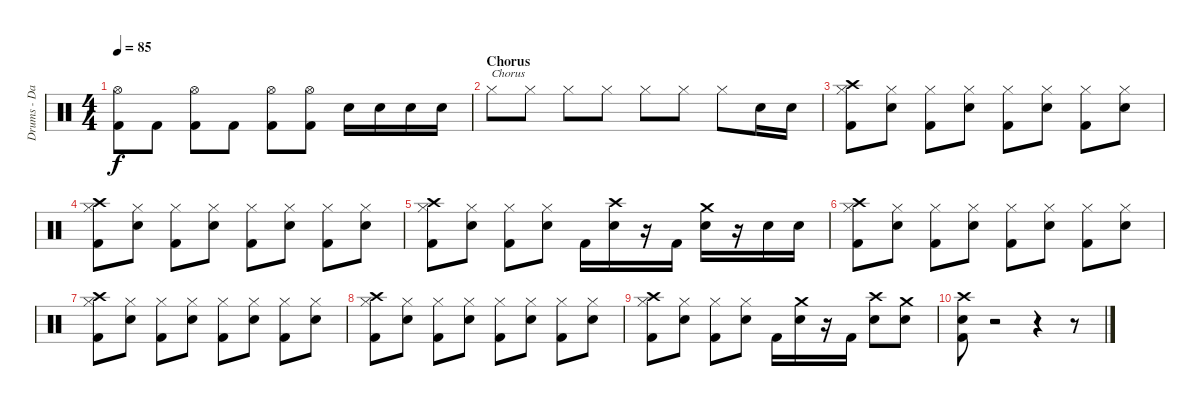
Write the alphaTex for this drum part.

\track ("Drums - Daniel Zimmermann" "Drums - Da") {instrument percussion}
\staff {score}
\articulation defaults
\ts (4 4)
\tempo 85
\clef neutral
\ks c
("Hi-Hat (open)" "Kick (hit) 2").8{dy f} "Kick (hit) 2".8 ("Hi-Hat (open)" "Kick (hit) 2").8 "Kick (hit) 2".8 ("Hi-Hat (open)" "Kick (hit) 2").8 ("Hi-Hat (open)" "Kick (hit) 2").8 "Snare (hit) 2".16 "Snare (hit) 2".16 "Snare (hit) 2".16 "Snare (hit) 2".16 |
\section ("" "Chorus")
"Hi-Hat (closed)".8{txt "Chorus"} "Hi-Hat (closed)".8 "Hi-Hat (closed)".8 "Hi-Hat (closed)".8 "Hi-Hat (closed)".8 "Hi-Hat (closed)".8 "Hi-Hat (closed)".8 "Snare (hit) 2".16 "Snare (hit) 2".16 |
("Hi-Hat (closed)" "Kick (hit) 2" "Crash high (hit)").8 ("Hi-Hat (closed)" "Snare (hit) 2").8 ("Hi-Hat (closed)" "Kick (hit) 2").8 ("Hi-Hat (closed)" "Snare (hit) 2").8 ("Hi-Hat (closed)" "Kick (hit) 2").8 ("Hi-Hat (closed)" "Snare (hit) 2").8 ("Hi-Hat (closed)" "Kick (hit) 2").8 ("Hi-Hat (closed)" "Snare (hit) 2").8 |
("Hi-Hat (closed)" "Kick (hit) 2" "Crash high (hit)").8 ("Hi-Hat (closed)" "Snare (hit) 2").8 ("Hi-Hat (closed)" "Kick (hit) 2").8 ("Hi-Hat (closed)" "Snare (hit) 2").8 ("Hi-Hat (closed)" "Kick (hit) 2").8 ("Hi-Hat (closed)" "Snare (hit) 2").8 ("Hi-Hat (closed)" "Kick (hit) 2").8 ("Hi-Hat (closed)" "Snare (hit) 2").8 |
("Hi-Hat (closed)" "Kick (hit) 2" "Crash high (hit)").8 ("Hi-Hat (closed)" "Snare (hit) 2").8 ("Hi-Hat (closed)" "Kick (hit) 2").8 ("Hi-Hat (closed)" "Snare (hit) 2").8 "Kick (hit) 2".16 ("Snare (hit) 2" "Crash high (hit)").16 r.16 "Kick (hit) 2".16 ("Snare (hit) 2" "Crash medium (hit)").16 r.16 "Snare (hit) 2".16 "Snare (hit) 2".16 |
("Hi-Hat (closed)" "Kick (hit) 2" "Crash high (hit)").8 ("Hi-Hat (closed)" "Snare (hit) 2").8 ("Hi-Hat (closed)" "Kick (hit) 2").8 ("Hi-Hat (closed)" "Snare (hit) 2").8 ("Hi-Hat (closed)" "Kick (hit) 2").8 ("Hi-Hat (closed)" "Snare (hit) 2").8 ("Hi-Hat (closed)" "Kick (hit) 2").8 ("Hi-Hat (closed)" "Snare (hit) 2").8 |
("Hi-Hat (closed)" "Kick (hit) 2" "Crash high (hit)").8 ("Hi-Hat (closed)" "Snare (hit) 2").8 ("Hi-Hat (closed)" "Kick (hit) 2").8 ("Hi-Hat (closed)" "Snare (hit) 2").8 ("Hi-Hat (closed)" "Kick (hit) 2").8 ("Hi-Hat (closed)" "Snare (hit) 2").8 ("Hi-Hat (closed)" "Kick (hit) 2").8 ("Hi-Hat (closed)" "Snare (hit) 2").8 |
("Hi-Hat (closed)" "Kick (hit) 2" "Crash high (hit)").8 ("Hi-Hat (closed)" "Snare (hit) 2").8 ("Hi-Hat (closed)" "Kick (hit) 2").8 ("Hi-Hat (closed)" "Snare (hit) 2").8 ("Hi-Hat (closed)" "Kick (hit) 2").8 ("Hi-Hat (closed)" "Snare (hit) 2").8 ("Hi-Hat (closed)" "Kick (hit) 2").8 ("Hi-Hat (closed)" "Snare (hit) 2").8 |
("Hi-Hat (closed)" "Kick (hit) 2" "Crash high (hit)").8 ("Hi-Hat (closed)" "Snare (hit) 2").8 ("Hi-Hat (closed)" "Kick (hit) 2").8 ("Hi-Hat (closed)" "Snare (hit) 2").8 "Kick (hit) 2".16 ("Snare (hit) 2" "Crash medium (hit)").16 r.16 "Kick (hit) 2".16 ("Snare (hit) 2" "Crash high (hit)").8 ("Snare (hit) 2" "Crash medium (hit)").8 |
("Kick (hit) 2" "Snare (hit) 2" "Crash high (hit)").8 r.2 r.4 r.8
